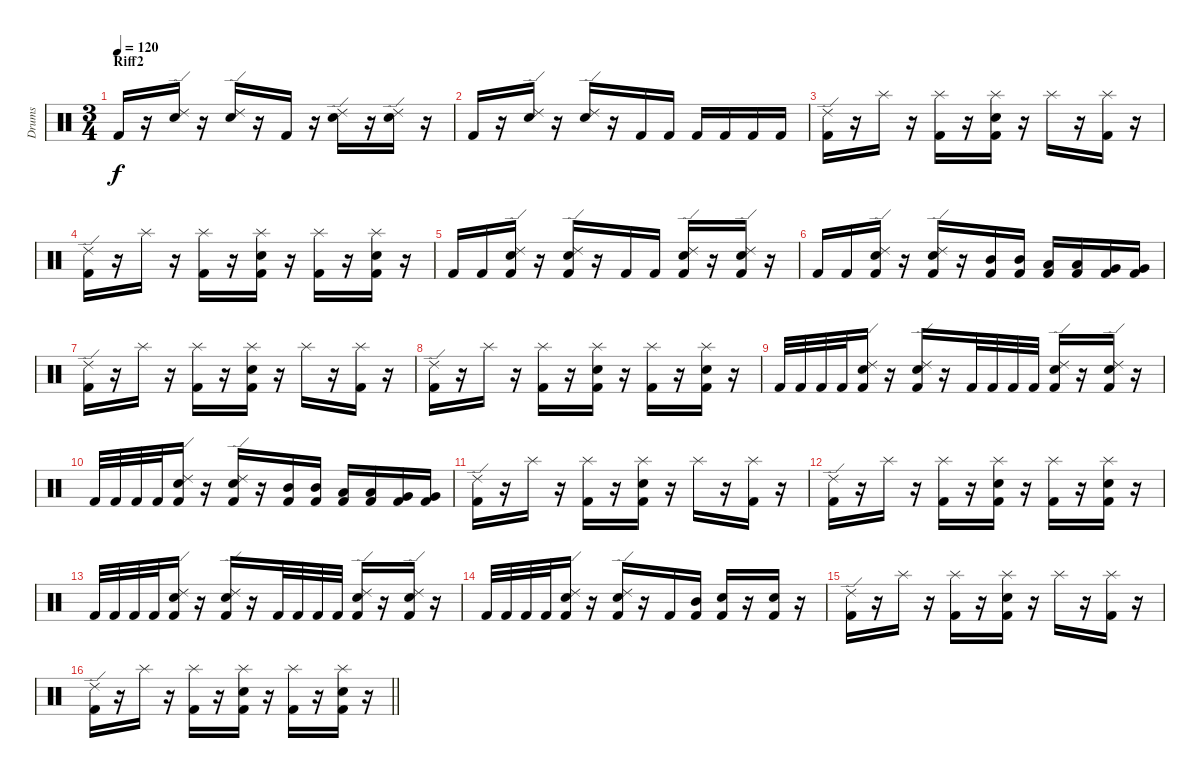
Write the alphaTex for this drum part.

\track ("Drums" "Drums") {instrument percussion}
\staff {score}
\articulation defaults
\ts (3 4)
\section ("" "Riff2")
\tempo 120
\clef neutral
\ks c "Kick (hit) 2".16{dy f}
r.16 ("Snare (hit) 2" "Ride (edge) 2").16 r.16 ("Snare (hit) 2" "Ride (edge) 2").16 r.16 "Kick (hit) 2".16 r.16 ("Snare (hit) 2" "Ride (edge) 2").16 r.16 ("Snare (hit) 2" "Ride (edge) 2").16 r.16 |
"Kick (hit) 2".16 r.16 ("Snare (hit) 2" "Ride (edge) 2").16 r.16 ("Snare (hit) 2" "Ride (edge) 2").16 r.16 "Kick (hit) 2".16 "Kick (hit) 2".16 "Kick (hit) 2".16 "Kick (hit) 2".16 "Kick (hit) 2".16 "Kick (hit) 2".16 |
("Kick (hit) 2" "Ride (edge) 2").16 r.16 "Splash (hit)".16 r.16 ("Kick (hit) 2" "Splash (hit)").16 r.16 ("Kick (hit) 2" "Splash (hit)" "Snare (hit) 2").16 r.16 "Splash (hit)".16 r.16 ("Kick (hit) 2" "Splash (hit)").16 r.16 |
("Kick (hit) 2" "Ride (edge) 2").16 r.16 "Splash (hit)".16 r.16 ("Kick (hit) 2" "Splash (hit)").16 r.16 ("Kick (hit) 2" "Splash (hit)" "Snare (hit) 2").16 r.16 ("Kick (hit) 2" "Splash (hit)").16 r.16 ("Kick (hit) 2" "Splash (hit)" "Snare (hit) 2").16 r.16 |
"Kick (hit) 2".16 "Kick (hit) 2".16 ("Kick (hit) 2" "Snare (hit) 2" "Ride (edge) 2").16 r.16 ("Kick (hit) 2" "Snare (hit) 2" "Ride (edge) 2").16 r.16 "Kick (hit) 2".16 "Kick (hit) 2".16 ("Kick (hit) 2" "Snare (hit) 2" "Ride (edge) 2").16 r.16 ("Kick (hit) 2" "Snare (hit) 2" "Ride (edge) 2").16 r.16 |
"Kick (hit) 2".16 "Kick (hit) 2".16 ("Kick (hit) 2" "Snare (hit) 2" "Ride (edge) 2").16 r.16 ("Kick (hit) 2" "Snare (hit) 2" "Ride (edge) 2").16 r.16 ("Kick (hit) 2" "Mid Tom (hit)").16 ("Kick (hit) 2" "Mid Tom (hit)").16 ("Kick (hit) 2" "Low Tom (hit)").16 ("Kick (hit) 2" "Low Tom (hit)").16 ("Kick (hit) 2" "Very Low Tom (hit)").16 ("Kick (hit) 2" "Very Low Tom (hit)").16 |
("Kick (hit) 2" "Ride (edge) 2").16 r.16 "Splash (hit)".16 r.16 ("Kick (hit) 2" "Splash (hit)").16 r.16 ("Kick (hit) 2" "Splash (hit)" "Snare (hit) 2").16 r.16 "Splash (hit)".16 r.16 ("Kick (hit) 2" "Splash (hit)").16 r.16 |
("Kick (hit) 2" "Ride (edge) 2").16 r.16 "Splash (hit)".16 r.16 ("Kick (hit) 2" "Splash (hit)").16 r.16 ("Kick (hit) 2" "Splash (hit)" "Snare (hit) 2").16 r.16 ("Kick (hit) 2" "Splash (hit)").16 r.16 ("Kick (hit) 2" "Splash (hit)" "Snare (hit) 2").16 r.16 |
"Kick (hit) 2".32 "Kick (hit) 2".32 "Kick (hit) 2".32 "Kick (hit) 2".32 ("Kick (hit) 2" "Snare (hit) 2" "Ride (edge) 2").16 r.16 ("Kick (hit) 2" "Snare (hit) 2" "Ride (edge) 2").16 r.16 "Kick (hit) 2".32 "Kick (hit) 2".32 "Kick (hit) 2".32 "Kick (hit) 2".32 ("Kick (hit) 2" "Snare (hit) 2" "Ride (edge) 2").16 r.16 ("Kick (hit) 2" "Snare (hit) 2" "Ride (edge) 2").16 r.16 |
"Kick (hit) 2".32 "Kick (hit) 2".32 "Kick (hit) 2".32 "Kick (hit) 2".32 ("Kick (hit) 2" "Snare (hit) 2" "Ride (edge) 2").16 r.16 ("Kick (hit) 2" "Snare (hit) 2" "Ride (edge) 2").16 r.16 ("Kick (hit) 2" "Mid Tom (hit)").16 ("Kick (hit) 2" "Mid Tom (hit)").16 ("Kick (hit) 2" "Low Tom (hit)").16 ("Kick (hit) 2" "Low Tom (hit)").16 ("Kick (hit) 2" "Very Low Tom (hit)").16 ("Kick (hit) 2" "Very Low Tom (hit)").16 |
("Kick (hit) 2" "Ride (edge) 2").16 r.16 "Splash (hit)".16 r.16 ("Kick (hit) 2" "Splash (hit)").16 r.16 ("Kick (hit) 2" "Splash (hit)" "Snare (hit) 2").16 r.16 "Splash (hit)".16 r.16 ("Kick (hit) 2" "Splash (hit)").16 r.16 |
("Kick (hit) 2" "Ride (edge) 2").16 r.16 "Splash (hit)".16 r.16 ("Kick (hit) 2" "Splash (hit)").16 r.16 ("Kick (hit) 2" "Splash (hit)" "Snare (hit) 2").16 r.16 ("Kick (hit) 2" "Splash (hit)").16 r.16 ("Kick (hit) 2" "Splash (hit)" "Snare (hit) 2").16 r.16 |
"Kick (hit) 2".32 "Kick (hit) 2".32 "Kick (hit) 2".32 "Kick (hit) 2".32 ("Kick (hit) 2" "Snare (hit) 2" "Ride (edge) 2").16 r.16 ("Kick (hit) 2" "Snare (hit) 2" "Ride (edge) 2").16 r.16 "Kick (hit) 2".32 "Kick (hit) 2".32 "Kick (hit) 2".32 "Kick (hit) 2".32 ("Kick (hit) 2" "Snare (hit) 2" "Ride (edge) 2").16 r.16 ("Kick (hit) 2" "Snare (hit) 2" "Ride (edge) 2").16 r.16 |
"Kick (hit) 2".32 "Kick (hit) 2".32 "Kick (hit) 2".32 "Kick (hit) 2".32 ("Kick (hit) 2" "Snare (hit) 2" "Ride (edge) 2").16 r.16 ("Kick (hit) 2" "Snare (hit) 2" "Ride (edge) 2").16 r.16 "Kick (hit) 2".16 ("Kick (hit) 2" "Mid Tom (hit)").16 ("Kick (hit) 2" "Snare (hit) 2").16 r.16 ("Kick (hit) 2" "Snare (hit) 2").16 r.16 |
("Kick (hit) 2" "Ride (edge) 2").16 r.16 "Splash (hit)".16 r.16 ("Kick (hit) 2" "Splash (hit)").16 r.16 ("Kick (hit) 2" "Splash (hit)" "Snare (hit) 2").16 r.16 "Splash (hit)".16 r.16 ("Kick (hit) 2" "Splash (hit)").16 r.16 |
\barLineRight lightlight
("Kick (hit) 2" "Ride (edge) 2").16 r.16 "Splash (hit)".16 r.16 ("Kick (hit) 2" "Splash (hit)").16 r.16 ("Kick (hit) 2" "Splash (hit)" "Snare (hit) 2").16 r.16 ("Kick (hit) 2" "Splash (hit)").16 r.16 ("Kick (hit) 2" "Splash (hit)" "Snare (hit) 2").16 r.16
